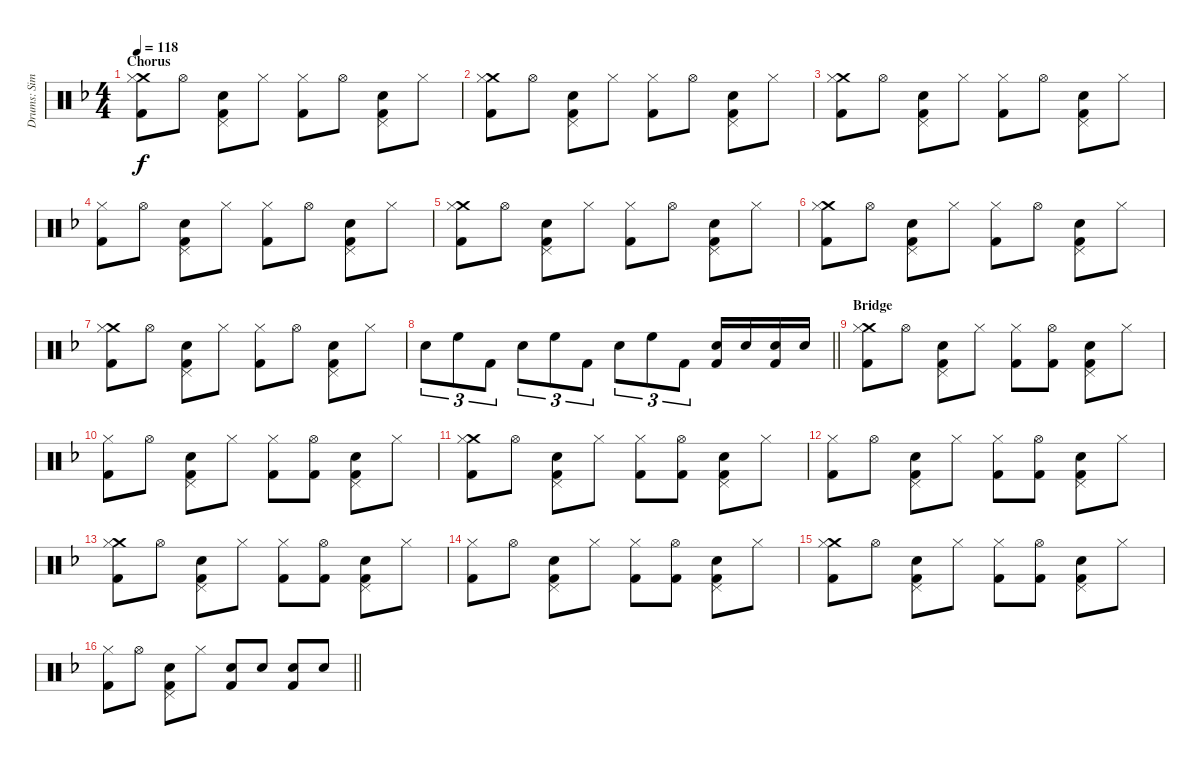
\track ("Drums: Simon Kirke" "Drums: Sim") {instrument percussion}
\staff {score}
\articulation defaults
\ts (4 4)
\section ("" "Chorus")
\tempo 118
\clef neutral
\ks f
("Crash medium (hit)" "Hi-Hat (closed)" "Kick (hit) 2").8{dy f} "Hi-Hat (open)".8 ("Pedal Hi-Hat (hit)" "Snare (hit) 2" "Kick (hit) 2").8 "Hi-Hat (closed)".8 ("Hi-Hat (closed)" "Kick (hit) 2").8 "Hi-Hat (open)".8 ("Pedal Hi-Hat (hit)" "Snare (hit) 2" "Kick (hit) 2").8 "Hi-Hat (closed)".8 |
("Crash medium (hit)" "Hi-Hat (closed)" "Kick (hit) 2").8 "Hi-Hat (open)".8 ("Pedal Hi-Hat (hit)" "Snare (hit) 2" "Kick (hit) 2").8 "Hi-Hat (closed)".8 ("Hi-Hat (closed)" "Kick (hit) 2").8 "Hi-Hat (open)".8 ("Pedal Hi-Hat (hit)" "Snare (hit) 2" "Kick (hit) 2").8 "Hi-Hat (closed)".8 |
("Crash medium (hit)" "Hi-Hat (closed)" "Kick (hit) 2").8 "Hi-Hat (open)".8 ("Pedal Hi-Hat (hit)" "Snare (hit) 2" "Kick (hit) 2").8 "Hi-Hat (closed)".8 ("Hi-Hat (closed)" "Kick (hit) 2").8 "Hi-Hat (open)".8 ("Pedal Hi-Hat (hit)" "Snare (hit) 2" "Kick (hit) 2").8 "Hi-Hat (closed)".8 |
("Hi-Hat (closed)" "Kick (hit) 2").8 "Hi-Hat (open)".8 ("Pedal Hi-Hat (hit)" "Snare (hit) 2" "Kick (hit) 2").8 "Hi-Hat (closed)".8 ("Hi-Hat (closed)" "Kick (hit) 2").8 "Hi-Hat (open)".8 ("Pedal Hi-Hat (hit)" "Snare (hit) 2" "Kick (hit) 2").8 "Hi-Hat (closed)".8 |
("Crash medium (hit)" "Hi-Hat (closed)" "Kick (hit) 2").8 "Hi-Hat (open)".8 ("Pedal Hi-Hat (hit)" "Snare (hit) 2" "Kick (hit) 2").8 "Hi-Hat (closed)".8 ("Hi-Hat (closed)" "Kick (hit) 2").8 "Hi-Hat (open)".8 ("Pedal Hi-Hat (hit)" "Snare (hit) 2" "Kick (hit) 2").8 "Hi-Hat (closed)".8 |
("Crash medium (hit)" "Hi-Hat (closed)" "Kick (hit) 2").8 "Hi-Hat (open)".8 ("Pedal Hi-Hat (hit)" "Snare (hit) 2" "Kick (hit) 2").8 "Hi-Hat (closed)".8 ("Hi-Hat (closed)" "Kick (hit) 2").8 "Hi-Hat (open)".8 ("Pedal Hi-Hat (hit)" "Snare (hit) 2" "Kick (hit) 2").8 "Hi-Hat (closed)".8 |
("Crash medium (hit)" "Hi-Hat (closed)" "Kick (hit) 2").8 "Hi-Hat (open)".8 ("Pedal Hi-Hat (hit)" "Snare (hit) 2" "Kick (hit) 2").8 "Hi-Hat (closed)".8 ("Hi-Hat (closed)" "Kick (hit) 2").8 "Hi-Hat (open)".8 ("Pedal Hi-Hat (hit)" "Snare (hit) 2" "Kick (hit) 2").8 "Hi-Hat (closed)".8 |
\barLineRight lightlight "Snare (hit) 2".8{tu (3 2)} "High Floor Tom (hit)".8{tu (3 2)} "Kick (hit) 2".8{tu (3 2)} "Snare (hit) 2".8{tu (3 2)} "High Floor Tom (hit)".8{tu (3 2)} "Kick (hit) 2".8{tu (3 2)} "Snare (hit) 2".8{tu (3 2)} "High Floor Tom (hit)".8{tu (3 2)} "Kick (hit) 2".8{tu (3 2)}
("Snare (hit) 2" "Kick (hit) 2").16 "Snare (hit) 2".16 ("Snare (hit) 2" "Kick (hit) 2").16 "Snare (hit) 2".16 |
\section ("" "Bridge")
("Crash medium (hit)" "Hi-Hat (closed)" "Kick (hit) 2").8 "Hi-Hat (open)".8 ("Pedal Hi-Hat (hit)" "Snare (hit) 2" "Kick (hit) 2").8 "Hi-Hat (closed)".8 ("Hi-Hat (closed)" "Kick (hit) 2").8 ("Hi-Hat (open)" "Kick (hit) 2").8 ("Pedal Hi-Hat (hit)" "Snare (hit) 2" "Kick (hit) 2").8 "Hi-Hat (closed)".8 |
("Hi-Hat (closed)" "Kick (hit) 2").8 "Hi-Hat (open)".8 ("Pedal Hi-Hat (hit)" "Snare (hit) 2" "Kick (hit) 2").8 "Hi-Hat (closed)".8 ("Hi-Hat (closed)" "Kick (hit) 2").8 ("Hi-Hat (open)" "Kick (hit) 2").8 ("Pedal Hi-Hat (hit)" "Snare (hit) 2" "Kick (hit) 2").8 "Hi-Hat (closed)".8 |
("Crash medium (hit)" "Hi-Hat (closed)" "Kick (hit) 2").8 "Hi-Hat (open)".8 ("Pedal Hi-Hat (hit)" "Snare (hit) 2" "Kick (hit) 2").8 "Hi-Hat (closed)".8 ("Hi-Hat (closed)" "Kick (hit) 2").8 ("Hi-Hat (open)" "Kick (hit) 2").8 ("Pedal Hi-Hat (hit)" "Snare (hit) 2" "Kick (hit) 2").8 "Hi-Hat (closed)".8 |
("Hi-Hat (closed)" "Kick (hit) 2").8 "Hi-Hat (open)".8 ("Pedal Hi-Hat (hit)" "Snare (hit) 2" "Kick (hit) 2").8 "Hi-Hat (closed)".8 ("Hi-Hat (closed)" "Kick (hit) 2").8 ("Hi-Hat (open)" "Kick (hit) 2").8 ("Pedal Hi-Hat (hit)" "Snare (hit) 2" "Kick (hit) 2").8 "Hi-Hat (closed)".8 |
("Crash medium (hit)" "Hi-Hat (closed)" "Kick (hit) 2").8 "Hi-Hat (open)".8 ("Pedal Hi-Hat (hit)" "Snare (hit) 2" "Kick (hit) 2").8 "Hi-Hat (closed)".8 ("Hi-Hat (closed)" "Kick (hit) 2").8 ("Hi-Hat (open)" "Kick (hit) 2").8 ("Pedal Hi-Hat (hit)" "Snare (hit) 2" "Kick (hit) 2").8 "Hi-Hat (closed)".8 |
("Hi-Hat (closed)" "Kick (hit) 2").8 "Hi-Hat (open)".8 ("Pedal Hi-Hat (hit)" "Snare (hit) 2" "Kick (hit) 2").8 "Hi-Hat (closed)".8 ("Hi-Hat (closed)" "Kick (hit) 2").8 ("Hi-Hat (open)" "Kick (hit) 2").8 ("Pedal Hi-Hat (hit)" "Snare (hit) 2" "Kick (hit) 2").8 "Hi-Hat (closed)".8 |
("Crash medium (hit)" "Hi-Hat (closed)" "Kick (hit) 2").8 "Hi-Hat (open)".8 ("Pedal Hi-Hat (hit)" "Snare (hit) 2" "Kick (hit) 2").8 "Hi-Hat (closed)".8 ("Hi-Hat (closed)" "Kick (hit) 2").8 ("Hi-Hat (open)" "Kick (hit) 2").8 ("Pedal Hi-Hat (hit)" "Snare (hit) 2" "Kick (hit) 2").8 "Hi-Hat (closed)".8 |
\barLineRight lightlight
("Hi-Hat (closed)" "Kick (hit) 2").8 "Hi-Hat (open)".8 ("Pedal Hi-Hat (hit)" "Snare (hit) 2" "Kick (hit) 2").8 "Hi-Hat (closed)".8 ("Snare (hit) 2" "Kick (hit) 2").8 "Snare (hit) 2".8 ("Snare (hit) 2" "Kick (hit) 2").8 "Snare (hit) 2".8
